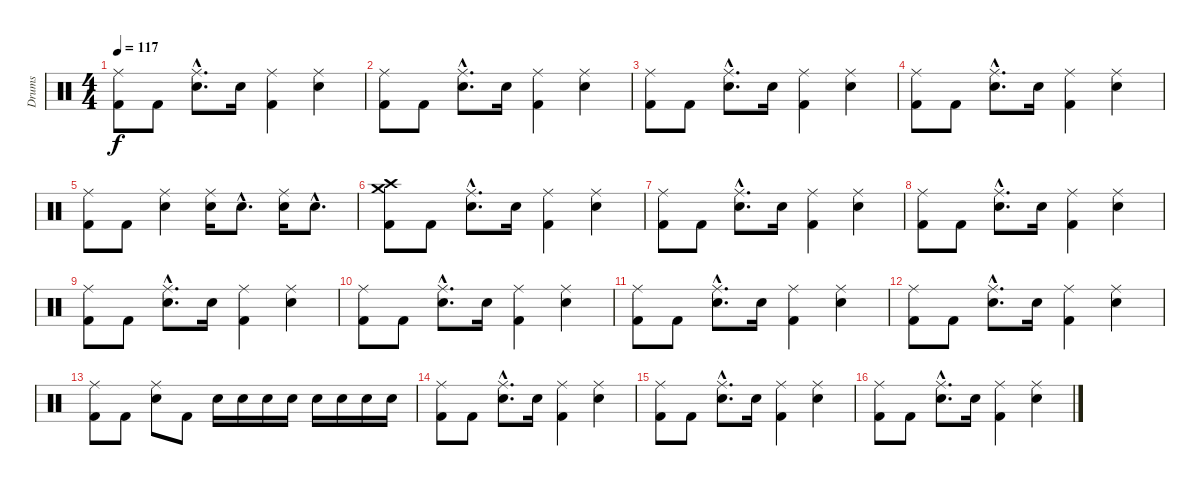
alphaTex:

\track ("Drums" "Drums") {instrument percussion}
\staff {score}
\articulation defaults
\ts (4 4)
\tempo 117
\clef neutral
\ks c
("Ride (middle)" "Kick (hit) 2").8{dy f} "Kick (hit) 2".8 ("Ride (middle)"{hac} "Electric Snare (hit)"{hac}).8{d} "Electric Snare (hit)".16 ("Ride (middle)" "Kick (hit) 2").4 ("Ride (middle)" "Electric Snare (hit)").4 |
("Ride (middle)" "Kick (hit) 2").8 "Kick (hit) 2".8 ("Ride (middle)"{hac} "Electric Snare (hit)"{hac}).8{d} "Electric Snare (hit)".16 ("Ride (middle)" "Kick (hit) 2").4 ("Ride (middle)" "Electric Snare (hit)").4 |
("Ride (middle)" "Kick (hit) 2").8 "Kick (hit) 2".8 ("Ride (middle)"{hac} "Electric Snare (hit)"{hac}).8{d} "Electric Snare (hit)".16 ("Ride (middle)" "Kick (hit) 2").4 ("Ride (middle)" "Electric Snare (hit)").4 |
("Ride (middle)" "Kick (hit) 2").8 "Kick (hit) 2".8 ("Ride (middle)"{hac} "Electric Snare (hit)"{hac}).8{d} "Electric Snare (hit)".16 ("Ride (middle)" "Kick (hit) 2").4 ("Ride (middle)" "Electric Snare (hit)").4 |
("Ride (middle)" "Kick (hit) 2").8 "Kick (hit) 2".8 ("Ride (middle)" "Electric Snare (hit)").4 ("Ride (middle)" "Electric Snare (hit)").16 "Electric Snare (hit)"{hac}.8{d} ("Ride (middle)" "Electric Snare (hit)").16 "Electric Snare (hit)"{hac}.8{d} |
("Crash medium (hit)" "Crash high (hit)" "Kick (hit) 2").8 "Kick (hit) 2".8 ("Ride (middle)"{hac} "Electric Snare (hit)"{hac}).8{d} "Electric Snare (hit)".16 ("Ride (middle)" "Kick (hit) 2").4 ("Ride (middle)" "Electric Snare (hit)").4 |
("Ride (middle)" "Kick (hit) 2").8 "Kick (hit) 2".8 ("Ride (middle)"{hac} "Electric Snare (hit)"{hac}).8{d} "Electric Snare (hit)".16 ("Ride (middle)" "Kick (hit) 2").4 ("Ride (middle)" "Electric Snare (hit)").4 |
("Ride (middle)" "Kick (hit) 2").8 "Kick (hit) 2".8 ("Ride (middle)"{hac} "Electric Snare (hit)"{hac}).8{d} "Electric Snare (hit)".16 ("Ride (middle)" "Kick (hit) 2").4 ("Ride (middle)" "Electric Snare (hit)").4 |
("Ride (middle)" "Kick (hit) 2").8 "Kick (hit) 2".8 ("Ride (middle)"{hac} "Electric Snare (hit)"{hac}).8{d} "Electric Snare (hit)".16 ("Ride (middle)" "Kick (hit) 2").4 ("Ride (middle)" "Electric Snare (hit)").4 |
("Ride (middle)" "Kick (hit) 2").8 "Kick (hit) 2".8 ("Ride (middle)"{hac} "Electric Snare (hit)"{hac}).8{d} "Electric Snare (hit)".16 ("Ride (middle)" "Kick (hit) 2").4 ("Ride (middle)" "Electric Snare (hit)").4 |
("Ride (middle)" "Kick (hit) 2").8 "Kick (hit) 2".8 ("Ride (middle)"{hac} "Electric Snare (hit)"{hac}).8{d} "Electric Snare (hit)".16 ("Ride (middle)" "Kick (hit) 2").4 ("Ride (middle)" "Electric Snare (hit)").4 |
("Ride (middle)" "Kick (hit) 2").8 "Kick (hit) 2".8 ("Ride (middle)"{hac} "Electric Snare (hit)"{hac}).8{d} "Electric Snare (hit)".16 ("Ride (middle)" "Kick (hit) 2").4 ("Ride (middle)" "Electric Snare (hit)").4 |
("Ride (middle)" "Kick (hit) 2").8 "Kick (hit) 2".8 ("Ride (middle)" "Electric Snare (hit)").8 "Kick (hit) 2".8 "Electric Snare (hit)".16 "Electric Snare (hit)".16 "Electric Snare (hit)".16 "Electric Snare (hit)".16 "Electric Snare (hit)".16 "Electric Snare (hit)".16 "Electric Snare (hit)".16 "Electric Snare (hit)".16 |
("Ride (middle)" "Kick (hit) 2").8 "Kick (hit) 2".8 ("Ride (middle)"{hac} "Electric Snare (hit)"{hac}).8{d} "Electric Snare (hit)".16 ("Ride (middle)" "Kick (hit) 2").4 ("Ride (middle)" "Electric Snare (hit)").4 |
("Ride (middle)" "Kick (hit) 2").8 "Kick (hit) 2".8 ("Ride (middle)"{hac} "Electric Snare (hit)"{hac}).8{d} "Electric Snare (hit)".16 ("Ride (middle)" "Kick (hit) 2").4 ("Ride (middle)" "Electric Snare (hit)").4 |
("Ride (middle)" "Kick (hit) 2").8 "Kick (hit) 2".8 ("Ride (middle)"{hac} "Electric Snare (hit)"{hac}).8{d} "Electric Snare (hit)".16 ("Ride (middle)" "Kick (hit) 2").4 ("Ride (middle)" "Electric Snare (hit)").4
